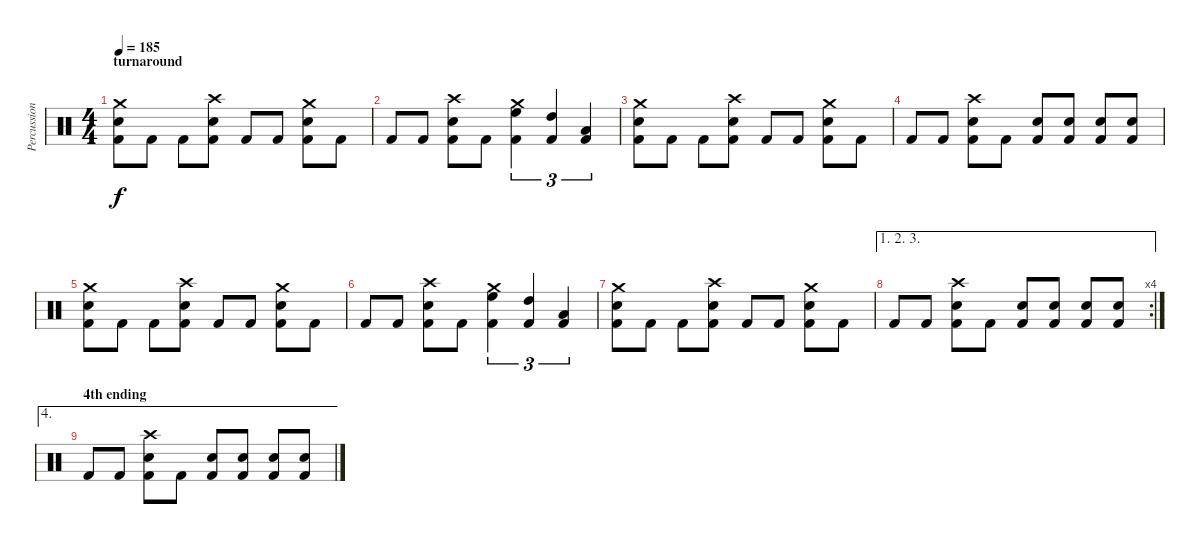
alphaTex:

\track ("Percussion" "Percussion") {instrument percussion}
\staff {score}
\articulation defaults
\ts (4 4)
\section ("" "turnaround")
\tempo 185
\clef neutral
\ks c
("Crash medium (hit)" "Snare (hit) 2" "Kick (hit) 2").8{dy f} "Kick (hit) 2".8 "Kick (hit) 2".8 ("Crash high (hit)" "Snare (hit) 2" "Kick (hit) 2").8 "Kick (hit) 2".8 "Kick (hit) 2".8 ("Crash medium (hit)" "Snare (hit) 2" "Kick (hit) 2").8 "Kick (hit) 2".8 |
"Kick (hit) 2".8 "Kick (hit) 2".8 ("Crash high (hit)" "Snare (hit) 2" "Kick (hit) 2").8 "Kick (hit) 2".8 ("High Floor Tom (hit)" "Crash medium (hit)" "Kick (hit) 2").4{tu (3 2)} ("High Tom (hit)" "Kick (hit) 2").4{tu (3 2)} ("Low Tom (hit)" "Kick (hit) 2").4{tu (3 2)} |
("Crash medium (hit)" "Snare (hit) 2" "Kick (hit) 2").8 "Kick (hit) 2".8 "Kick (hit) 2".8 ("Crash high (hit)" "Snare (hit) 2" "Kick (hit) 2").8 "Kick (hit) 2".8 "Kick (hit) 2".8 ("Crash medium (hit)" "Snare (hit) 2" "Kick (hit) 2").8 "Kick (hit) 2".8 |
"Kick (hit) 2".8 "Kick (hit) 2".8 ("Crash high (hit)" "Snare (hit) 2" "Kick (hit) 2").8 "Kick (hit) 2".8 ("Snare (hit) 2" "Kick (hit) 2").8 ("Snare (hit) 2" "Kick (hit) 2").8 ("Snare (hit) 2" "Kick (hit) 2").8 ("Snare (hit) 2" "Kick (hit) 2").8 |
("Crash medium (hit)" "Snare (hit) 2" "Kick (hit) 2").8 "Kick (hit) 2".8 "Kick (hit) 2".8 ("Crash high (hit)" "Snare (hit) 2" "Kick (hit) 2").8 "Kick (hit) 2".8 "Kick (hit) 2".8 ("Crash medium (hit)" "Snare (hit) 2" "Kick (hit) 2").8 "Kick (hit) 2".8 |
"Kick (hit) 2".8 "Kick (hit) 2".8 ("Crash high (hit)" "Snare (hit) 2" "Kick (hit) 2").8 "Kick (hit) 2".8 ("High Floor Tom (hit)" "Crash medium (hit)" "Kick (hit) 2").4{tu (3 2)} ("High Tom (hit)" "Kick (hit) 2").4{tu (3 2)} ("Low Tom (hit)" "Kick (hit) 2").4{tu (3 2)} |
("Crash medium (hit)" "Snare (hit) 2" "Kick (hit) 2").8 "Kick (hit) 2".8 "Kick (hit) 2".8 ("Crash high (hit)" "Snare (hit) 2" "Kick (hit) 2").8 "Kick (hit) 2".8 "Kick (hit) 2".8 ("Crash medium (hit)" "Snare (hit) 2" "Kick (hit) 2").8 "Kick (hit) 2".8 |
\ae (1 2 3)
\rc 4 "Kick (hit) 2".8 "Kick (hit) 2".8
("Crash high (hit)" "Snare (hit) 2" "Kick (hit) 2").8 "Kick (hit) 2".8 ("Snare (hit) 2" "Kick (hit) 2").8 ("Snare (hit) 2" "Kick (hit) 2").8 ("Snare (hit) 2" "Kick (hit) 2").8 ("Snare (hit) 2" "Kick (hit) 2").8 |
\ae 4
\section ("" "4th ending")
"Kick (hit) 2".8 "Kick (hit) 2".8 ("Crash high (hit)" "Snare (hit) 2" "Kick (hit) 2").8 "Kick (hit) 2".8 ("Snare (hit) 2" "Kick (hit) 2").8 ("Snare (hit) 2" "Kick (hit) 2").8 ("Snare (hit) 2" "Kick (hit) 2").8 ("Snare (hit) 2" "Kick (hit) 2").8
